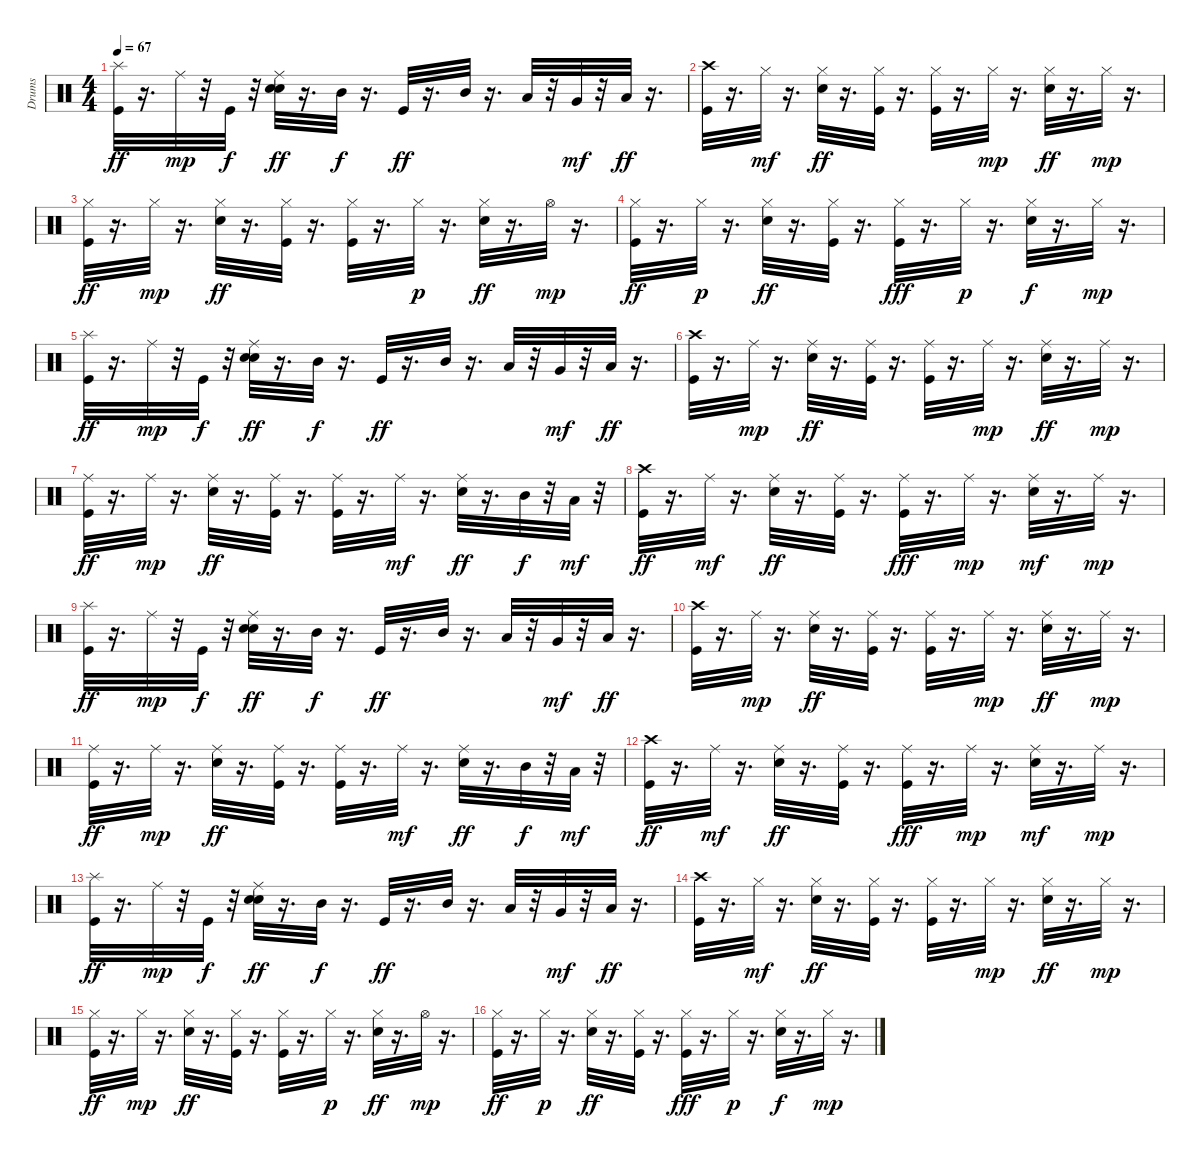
\track ("Drums" "Drums") {instrument percussion}
\staff {score}
\articulation defaults
\ts (4 4)
\tempo 67
\clef neutral
\ks c
("Splash (hit)" "Kick (hit)").32{dy ff} r.16{d} "Ride (middle)".32{dy mp} r.32 "Kick (hit)".32{dy f} r.32 ("Snare (hit) 2" "Ride (middle)" "Electric Snare (hit)").32{dy ff} r.16{d} "Mid Tom (hit)".32{dy f} r.16{d} "Kick (hit)".32{dy ff} r.16{d} "Mid Tom (hit)".32 r.16{d} "Low Tom (hit)".32 r.32 "Very Low Tom (hit)".32{dy mf} r.32 "Low Floor Tom (hit)".32{dy ff} r.16{d} |
("Crash high (hit)" "Kick (hit)").32 r.16{d} "Hi-Hat (closed)".32{dy mf} r.16{d} ("Hi-Hat (closed)" "Electric Snare (hit)").32{dy ff} r.16{d} ("Hi-Hat (closed)" "Kick (hit)").32 r.16{d} ("Hi-Hat (closed)" "Kick (hit)").32 r.16{d} "Hi-Hat (closed)".32{dy mp} r.16{d} ("Hi-Hat (closed)" "Electric Snare (hit)").32{dy ff} r.16{d} "Hi-Hat (closed)".32{dy mp} r.16{d} |
("Hi-Hat (closed)" "Kick (hit)").32{dy ff} r.16{d} "Hi-Hat (closed)".32{dy mp} r.16{d} ("Hi-Hat (closed)" "Electric Snare (hit)").32{dy ff} r.16{d} ("Hi-Hat (closed)" "Kick (hit)").32 r.16{d} ("Hi-Hat (closed)" "Kick (hit)").32 r.16{d} "Hi-Hat (closed)".32{dy p} r.16{d} ("Hi-Hat (closed)" "Electric Snare (hit)").32{dy ff} r.16{d} "Hi-Hat (open)".32{dy mp} r.16{d} |
("Hi-Hat (closed)" "Kick (hit)").32{dy ff} r.16{d} "Hi-Hat (closed)".32{dy p} r.16{d} ("Hi-Hat (closed)" "Electric Snare (hit)").32{dy ff} r.16{d} ("Hi-Hat (closed)" "Kick (hit)").32 r.16{d} ("Hi-Hat (closed)" "Kick (hit)").32{dy fff} r.16{d} "Hi-Hat (closed)".32{dy p} r.16{d} ("Hi-Hat (closed)" "Electric Snare (hit)").32{dy f} r.16{d} "Hi-Hat (closed)".32{dy mp} r.16{d} |
("Splash (hit)" "Kick (hit)").32{dy ff} r.16{d} "Ride (middle)".32{dy mp} r.32 "Kick (hit)".32{dy f} r.32 ("Snare (hit) 2" "Ride (middle)" "Electric Snare (hit)").32{dy ff} r.16{d} "Mid Tom (hit)".32{dy f} r.16{d} "Kick (hit)".32{dy ff} r.16{d} "Mid Tom (hit)".32 r.16{d} "Low Tom (hit)".32 r.32 "Very Low Tom (hit)".32{dy mf} r.32 "Low Floor Tom (hit)".32{dy ff} r.16{d} |
("Crash high (hit)" "Kick (hit)").32 r.16{d} "Ride (middle)".32{dy mp} r.16{d} ("Ride (middle)" "Electric Snare (hit)").32{dy ff} r.16{d} ("Ride (middle)" "Kick (hit)").32 r.16{d} ("Ride (middle)" "Kick (hit)").32 r.16{d} "Ride (middle)".32{dy mp} r.16{d} ("Ride (middle)" "Electric Snare (hit)").32{dy ff} r.16{d} "Ride (middle)".32{dy mp} r.16{d} |
("Ride (middle)" "Kick (hit)").32{dy ff} r.16{d} "Ride (middle)".32{dy mp} r.16{d} ("Ride (middle)" "Electric Snare (hit)").32{dy ff} r.16{d} ("Ride (middle)" "Kick (hit)").32 r.16{d} ("Ride (middle)" "Kick (hit)").32 r.16{d} "Ride (middle)".32{dy mf} r.16{d} ("Ride (middle)" "Electric Snare (hit)").32{dy ff} r.16{d} "Mid Tom (hit)".32{dy f} r.32 "Low Tom (hit)".32{dy mf} r.32 |
("Crash high (hit)" "Kick (hit)").32{dy ff} r.16{d} "Ride (middle)".32{dy mf} r.16{d} ("Ride (middle)" "Electric Snare (hit)").32{dy ff} r.16{d} ("Ride (middle)" "Kick (hit)").32 r.16{d} ("Ride (middle)" "Kick (hit)").32{dy fff} r.16{d} "Ride (middle)".32{dy mp} r.16{d} ("Ride (middle)" "Electric Snare (hit)").32{dy mf} r.16{d} "Ride (middle)".32{dy mp} r.16{d} |
("Splash (hit)" "Kick (hit)").32{dy ff} r.16{d} "Ride (middle)".32{dy mp} r.32 "Kick (hit)".32{dy f} r.32 ("Snare (hit) 2" "Ride (middle)" "Electric Snare (hit)").32{dy ff} r.16{d} "Mid Tom (hit)".32{dy f} r.16{d} "Kick (hit)".32{dy ff} r.16{d} "Mid Tom (hit)".32 r.16{d} "Low Tom (hit)".32 r.32 "Very Low Tom (hit)".32{dy mf} r.32 "Low Floor Tom (hit)".32{dy ff} r.16{d} |
("Crash high (hit)" "Kick (hit)").32 r.16{d} "Ride (middle)".32{dy mp} r.16{d} ("Ride (middle)" "Electric Snare (hit)").32{dy ff} r.16{d} ("Ride (middle)" "Kick (hit)").32 r.16{d} ("Ride (middle)" "Kick (hit)").32 r.16{d} "Ride (middle)".32{dy mp} r.16{d} ("Ride (middle)" "Electric Snare (hit)").32{dy ff} r.16{d} "Ride (middle)".32{dy mp} r.16{d} |
("Ride (middle)" "Kick (hit)").32{dy ff} r.16{d} "Ride (middle)".32{dy mp} r.16{d} ("Ride (middle)" "Electric Snare (hit)").32{dy ff} r.16{d} ("Ride (middle)" "Kick (hit)").32 r.16{d} ("Ride (middle)" "Kick (hit)").32 r.16{d} "Ride (middle)".32{dy mf} r.16{d} ("Ride (middle)" "Electric Snare (hit)").32{dy ff} r.16{d} "Mid Tom (hit)".32{dy f} r.32 "Low Tom (hit)".32{dy mf} r.32 |
("Crash high (hit)" "Kick (hit)").32{dy ff} r.16{d} "Ride (middle)".32{dy mf} r.16{d} ("Ride (middle)" "Electric Snare (hit)").32{dy ff} r.16{d} ("Ride (middle)" "Kick (hit)").32 r.16{d} ("Ride (middle)" "Kick (hit)").32{dy fff} r.16{d} "Ride (middle)".32{dy mp} r.16{d} ("Ride (middle)" "Electric Snare (hit)").32{dy mf} r.16{d} "Ride (middle)".32{dy mp} r.16{d} |
("Splash (hit)" "Kick (hit)").32{dy ff} r.16{d} "Ride (middle)".32{dy mp} r.32 "Kick (hit)".32{dy f} r.32 ("Snare (hit) 2" "Ride (middle)" "Electric Snare (hit)").32{dy ff} r.16{d} "Mid Tom (hit)".32{dy f} r.16{d} "Kick (hit)".32{dy ff} r.16{d} "Mid Tom (hit)".32 r.16{d} "Low Tom (hit)".32 r.32 "Very Low Tom (hit)".32{dy mf} r.32 "Low Floor Tom (hit)".32{dy ff} r.16{d} |
("Crash high (hit)" "Kick (hit)").32 r.16{d} "Hi-Hat (closed)".32{dy mf} r.16{d} ("Hi-Hat (closed)" "Electric Snare (hit)").32{dy ff} r.16{d} ("Hi-Hat (closed)" "Kick (hit)").32 r.16{d} ("Hi-Hat (closed)" "Kick (hit)").32 r.16{d} "Hi-Hat (closed)".32{dy mp} r.16{d} ("Hi-Hat (closed)" "Electric Snare (hit)").32{dy ff} r.16{d} "Hi-Hat (closed)".32{dy mp} r.16{d} |
("Hi-Hat (closed)" "Kick (hit)").32{dy ff} r.16{d} "Hi-Hat (closed)".32{dy mp} r.16{d} ("Hi-Hat (closed)" "Electric Snare (hit)").32{dy ff} r.16{d} ("Hi-Hat (closed)" "Kick (hit)").32 r.16{d} ("Hi-Hat (closed)" "Kick (hit)").32 r.16{d} "Hi-Hat (closed)".32{dy p} r.16{d} ("Hi-Hat (closed)" "Electric Snare (hit)").32{dy ff} r.16{d} "Hi-Hat (open)".32{dy mp} r.16{d} |
("Hi-Hat (closed)" "Kick (hit)").32{dy ff} r.16{d} "Hi-Hat (closed)".32{dy p} r.16{d} ("Hi-Hat (closed)" "Electric Snare (hit)").32{dy ff} r.16{d} ("Hi-Hat (closed)" "Kick (hit)").32 r.16{d} ("Hi-Hat (closed)" "Kick (hit)").32{dy fff} r.16{d} "Hi-Hat (closed)".32{dy p} r.16{d} ("Hi-Hat (closed)" "Electric Snare (hit)").32{dy f} r.16{d} "Hi-Hat (closed)".32{dy mp} r.16{d}
